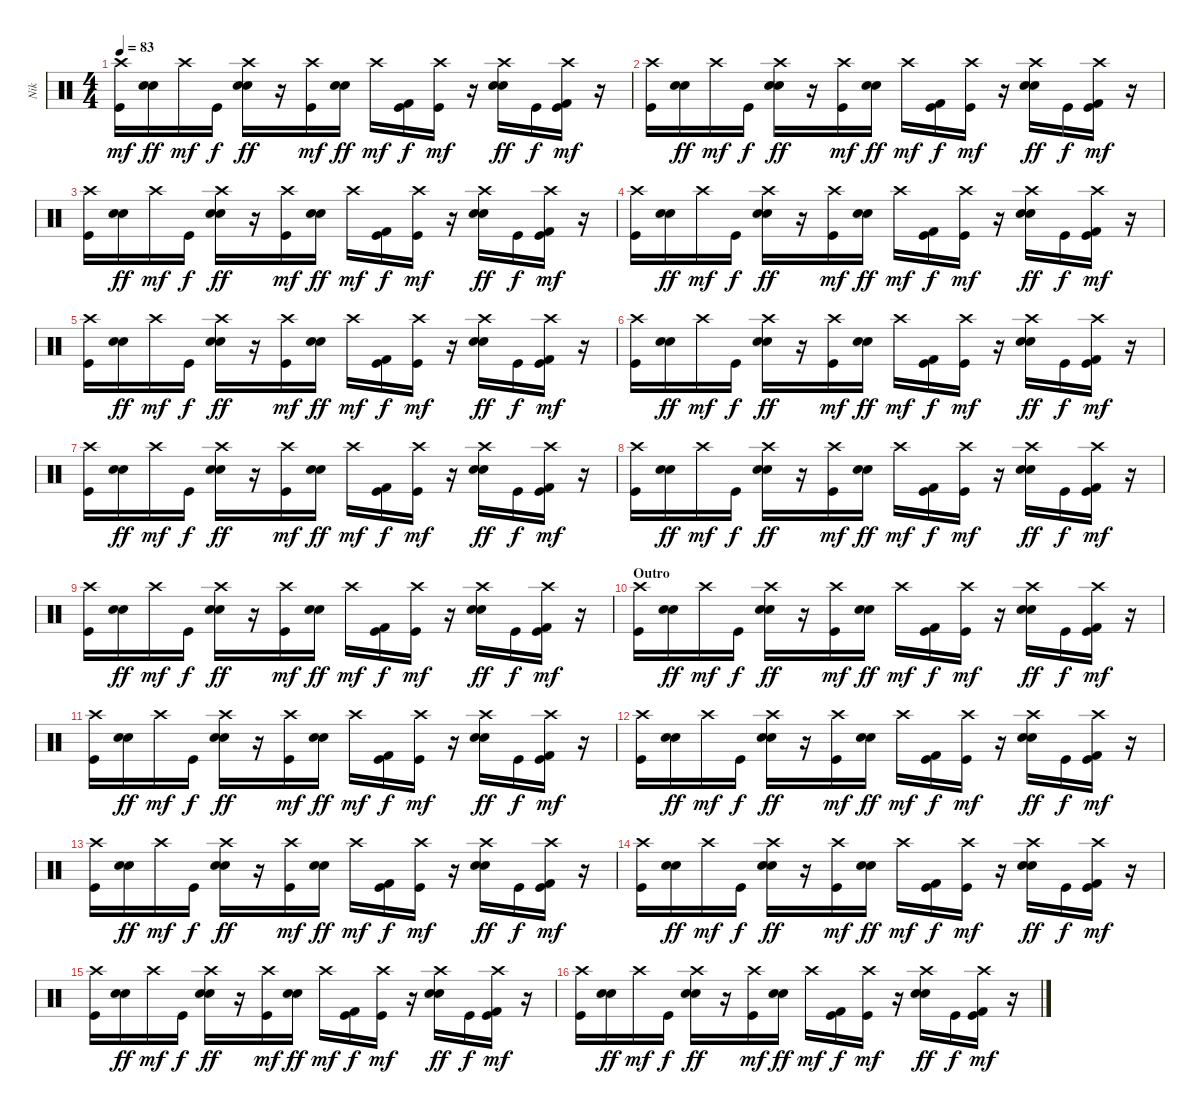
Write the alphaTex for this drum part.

\track ("Nik" "Nik") {instrument percussion}
\staff {score}
\articulation defaults
\ts (4 4)
\tempo 83
\clef neutral
\ks c
("Crash high (hit)" "Kick (hit)").16{dy mf} ("Electric Snare (hit)" "Electric Snare (hit)").16{dy ff} "Crash high (hit)".16{dy mf} "Kick (hit)".16{dy f} ("Crash high (hit)" "Electric Snare (hit)" "Electric Snare (hit)").16{dy ff} r.16 ("Crash high (hit)" "Kick (hit)").16{dy mf} ("Electric Snare (hit)" "Electric Snare (hit)").16{dy ff} "Crash high (hit)".16{dy mf} ("Kick (hit) 2" "Kick (hit)").16{dy f} ("Crash high (hit)" "Kick (hit)").16{dy mf} r.16 ("Crash high (hit)" "Electric Snare (hit)" "Electric Snare (hit)").16{dy ff} "Kick (hit)".16{dy f} ("Crash high (hit)" "Kick (hit) 2" "Kick (hit)").16{dy mf} r.16 |
("Crash high (hit)" "Kick (hit)").16 ("Electric Snare (hit)" "Electric Snare (hit)").16{dy ff} "Crash high (hit)".16{dy mf} "Kick (hit)".16{dy f} ("Crash high (hit)" "Electric Snare (hit)" "Electric Snare (hit)").16{dy ff} r.16 ("Crash high (hit)" "Kick (hit)").16{dy mf} ("Electric Snare (hit)" "Electric Snare (hit)").16{dy ff} "Crash high (hit)".16{dy mf} ("Kick (hit) 2" "Kick (hit)").16{dy f} ("Crash high (hit)" "Kick (hit)").16{dy mf} r.16 ("Crash high (hit)" "Electric Snare (hit)" "Electric Snare (hit)").16{dy ff} "Kick (hit)".16{dy f} ("Crash high (hit)" "Kick (hit) 2" "Kick (hit)").16{dy mf} r.16 |
("Crash high (hit)" "Kick (hit)").16 ("Electric Snare (hit)" "Electric Snare (hit)").16{dy ff} "Crash high (hit)".16{dy mf} "Kick (hit)".16{dy f} ("Crash high (hit)" "Electric Snare (hit)" "Electric Snare (hit)").16{dy ff} r.16 ("Crash high (hit)" "Kick (hit)").16{dy mf} ("Electric Snare (hit)" "Electric Snare (hit)").16{dy ff} "Crash high (hit)".16{dy mf} ("Kick (hit) 2" "Kick (hit)").16{dy f} ("Crash high (hit)" "Kick (hit)").16{dy mf} r.16 ("Crash high (hit)" "Electric Snare (hit)" "Electric Snare (hit)").16{dy ff} "Kick (hit)".16{dy f} ("Crash high (hit)" "Kick (hit) 2" "Kick (hit)").16{dy mf} r.16 |
("Crash high (hit)" "Kick (hit)").16 ("Electric Snare (hit)" "Electric Snare (hit)").16{dy ff} "Crash high (hit)".16{dy mf} "Kick (hit)".16{dy f} ("Crash high (hit)" "Electric Snare (hit)" "Electric Snare (hit)").16{dy ff} r.16 ("Crash high (hit)" "Kick (hit)").16{dy mf} ("Electric Snare (hit)" "Electric Snare (hit)").16{dy ff} "Crash high (hit)".16{dy mf} ("Kick (hit) 2" "Kick (hit)").16{dy f} ("Crash high (hit)" "Kick (hit)").16{dy mf} r.16 ("Crash high (hit)" "Electric Snare (hit)" "Electric Snare (hit)").16{dy ff} "Kick (hit)".16{dy f} ("Crash high (hit)" "Kick (hit) 2" "Kick (hit)").16{dy mf} r.16 |
("Crash high (hit)" "Kick (hit)").16 ("Electric Snare (hit)" "Electric Snare (hit)").16{dy ff} "Crash high (hit)".16{dy mf} "Kick (hit)".16{dy f} ("Crash high (hit)" "Electric Snare (hit)" "Electric Snare (hit)").16{dy ff} r.16 ("Crash high (hit)" "Kick (hit)").16{dy mf} ("Electric Snare (hit)" "Electric Snare (hit)").16{dy ff} "Crash high (hit)".16{dy mf} ("Kick (hit) 2" "Kick (hit)").16{dy f} ("Crash high (hit)" "Kick (hit)").16{dy mf} r.16 ("Crash high (hit)" "Electric Snare (hit)" "Electric Snare (hit)").16{dy ff} "Kick (hit)".16{dy f} ("Crash high (hit)" "Kick (hit) 2" "Kick (hit)").16{dy mf} r.16 |
("Crash high (hit)" "Kick (hit)").16 ("Electric Snare (hit)" "Electric Snare (hit)").16{dy ff} "Crash high (hit)".16{dy mf} "Kick (hit)".16{dy f} ("Crash high (hit)" "Electric Snare (hit)" "Electric Snare (hit)").16{dy ff} r.16 ("Crash high (hit)" "Kick (hit)").16{dy mf} ("Electric Snare (hit)" "Electric Snare (hit)").16{dy ff} "Crash high (hit)".16{dy mf} ("Kick (hit) 2" "Kick (hit)").16{dy f} ("Crash high (hit)" "Kick (hit)").16{dy mf} r.16 ("Crash high (hit)" "Electric Snare (hit)" "Electric Snare (hit)").16{dy ff} "Kick (hit)".16{dy f} ("Crash high (hit)" "Kick (hit) 2" "Kick (hit)").16{dy mf} r.16 |
("Crash high (hit)" "Kick (hit)").16 ("Electric Snare (hit)" "Electric Snare (hit)").16{dy ff} "Crash high (hit)".16{dy mf} "Kick (hit)".16{dy f} ("Crash high (hit)" "Electric Snare (hit)" "Electric Snare (hit)").16{dy ff} r.16 ("Crash high (hit)" "Kick (hit)").16{dy mf} ("Electric Snare (hit)" "Electric Snare (hit)").16{dy ff} "Crash high (hit)".16{dy mf} ("Kick (hit) 2" "Kick (hit)").16{dy f} ("Crash high (hit)" "Kick (hit)").16{dy mf} r.16 ("Crash high (hit)" "Electric Snare (hit)" "Electric Snare (hit)").16{dy ff} "Kick (hit)".16{dy f} ("Crash high (hit)" "Kick (hit) 2" "Kick (hit)").16{dy mf} r.16 |
("Crash high (hit)" "Kick (hit)").16 ("Electric Snare (hit)" "Electric Snare (hit)").16{dy ff} "Crash high (hit)".16{dy mf} "Kick (hit)".16{dy f} ("Crash high (hit)" "Electric Snare (hit)" "Electric Snare (hit)").16{dy ff} r.16 ("Crash high (hit)" "Kick (hit)").16{dy mf} ("Electric Snare (hit)" "Electric Snare (hit)").16{dy ff} "Crash high (hit)".16{dy mf} ("Kick (hit) 2" "Kick (hit)").16{dy f} ("Crash high (hit)" "Kick (hit)").16{dy mf} r.16 ("Crash high (hit)" "Electric Snare (hit)" "Electric Snare (hit)").16{dy ff} "Kick (hit)".16{dy f} ("Crash high (hit)" "Kick (hit) 2" "Kick (hit)").16{dy mf} r.16 |
("Crash high (hit)" "Kick (hit)").16 ("Electric Snare (hit)" "Electric Snare (hit)").16{dy ff} "Crash high (hit)".16{dy mf} "Kick (hit)".16{dy f} ("Crash high (hit)" "Electric Snare (hit)" "Electric Snare (hit)").16{dy ff} r.16 ("Crash high (hit)" "Kick (hit)").16{dy mf} ("Electric Snare (hit)" "Electric Snare (hit)").16{dy ff} "Crash high (hit)".16{dy mf} ("Kick (hit) 2" "Kick (hit)").16{dy f} ("Crash high (hit)" "Kick (hit)").16{dy mf} r.16 ("Crash high (hit)" "Electric Snare (hit)" "Electric Snare (hit)").16{dy ff} "Kick (hit)".16{dy f} ("Crash high (hit)" "Kick (hit) 2" "Kick (hit)").16{dy mf} r.16 |
\section ("" "Outro")
("Crash high (hit)" "Kick (hit)").16 ("Electric Snare (hit)" "Electric Snare (hit)").16{dy ff} "Crash high (hit)".16{dy mf} "Kick (hit)".16{dy f} ("Crash high (hit)" "Electric Snare (hit)" "Electric Snare (hit)").16{dy ff} r.16 ("Crash high (hit)" "Kick (hit)").16{dy mf} ("Electric Snare (hit)" "Electric Snare (hit)").16{dy ff} "Crash high (hit)".16{dy mf} ("Kick (hit) 2" "Kick (hit)").16{dy f} ("Crash high (hit)" "Kick (hit)").16{dy mf} r.16 ("Crash high (hit)" "Electric Snare (hit)" "Electric Snare (hit)").16{dy ff} "Kick (hit)".16{dy f} ("Crash high (hit)" "Kick (hit) 2" "Kick (hit)").16{dy mf} r.16 |
("Crash high (hit)" "Kick (hit)").16 ("Electric Snare (hit)" "Electric Snare (hit)").16{dy ff} "Crash high (hit)".16{dy mf} "Kick (hit)".16{dy f} ("Crash high (hit)" "Electric Snare (hit)" "Electric Snare (hit)").16{dy ff} r.16 ("Crash high (hit)" "Kick (hit)").16{dy mf} ("Electric Snare (hit)" "Electric Snare (hit)").16{dy ff} "Crash high (hit)".16{dy mf} ("Kick (hit) 2" "Kick (hit)").16{dy f} ("Crash high (hit)" "Kick (hit)").16{dy mf} r.16 ("Crash high (hit)" "Electric Snare (hit)" "Electric Snare (hit)").16{dy ff} "Kick (hit)".16{dy f} ("Crash high (hit)" "Kick (hit) 2" "Kick (hit)").16{dy mf} r.16 |
("Crash high (hit)" "Kick (hit)").16 ("Electric Snare (hit)" "Electric Snare (hit)").16{dy ff} "Crash high (hit)".16{dy mf} "Kick (hit)".16{dy f} ("Crash high (hit)" "Electric Snare (hit)" "Electric Snare (hit)").16{dy ff} r.16 ("Crash high (hit)" "Kick (hit)").16{dy mf} ("Electric Snare (hit)" "Electric Snare (hit)").16{dy ff} "Crash high (hit)".16{dy mf} ("Kick (hit) 2" "Kick (hit)").16{dy f} ("Crash high (hit)" "Kick (hit)").16{dy mf} r.16 ("Crash high (hit)" "Electric Snare (hit)" "Electric Snare (hit)").16{dy ff} "Kick (hit)".16{dy f} ("Crash high (hit)" "Kick (hit) 2" "Kick (hit)").16{dy mf} r.16 |
("Crash high (hit)" "Kick (hit)").16 ("Electric Snare (hit)" "Electric Snare (hit)").16{dy ff} "Crash high (hit)".16{dy mf} "Kick (hit)".16{dy f} ("Crash high (hit)" "Electric Snare (hit)" "Electric Snare (hit)").16{dy ff} r.16 ("Crash high (hit)" "Kick (hit)").16{dy mf} ("Electric Snare (hit)" "Electric Snare (hit)").16{dy ff} "Crash high (hit)".16{dy mf} ("Kick (hit) 2" "Kick (hit)").16{dy f} ("Crash high (hit)" "Kick (hit)").16{dy mf} r.16 ("Crash high (hit)" "Electric Snare (hit)" "Electric Snare (hit)").16{dy ff} "Kick (hit)".16{dy f} ("Crash high (hit)" "Kick (hit) 2" "Kick (hit)").16{dy mf} r.16 |
("Crash high (hit)" "Kick (hit)").16 ("Electric Snare (hit)" "Electric Snare (hit)").16{dy ff} "Crash high (hit)".16{dy mf} "Kick (hit)".16{dy f} ("Crash high (hit)" "Electric Snare (hit)" "Electric Snare (hit)").16{dy ff} r.16 ("Crash high (hit)" "Kick (hit)").16{dy mf} ("Electric Snare (hit)" "Electric Snare (hit)").16{dy ff} "Crash high (hit)".16{dy mf} ("Kick (hit) 2" "Kick (hit)").16{dy f} ("Crash high (hit)" "Kick (hit)").16{dy mf} r.16 ("Crash high (hit)" "Electric Snare (hit)" "Electric Snare (hit)").16{dy ff} "Kick (hit)".16{dy f} ("Crash high (hit)" "Kick (hit) 2" "Kick (hit)").16{dy mf} r.16 |
("Crash high (hit)" "Kick (hit)").16 ("Electric Snare (hit)" "Electric Snare (hit)").16{dy ff} "Crash high (hit)".16{dy mf} "Kick (hit)".16{dy f} ("Crash high (hit)" "Electric Snare (hit)" "Electric Snare (hit)").16{dy ff} r.16 ("Crash high (hit)" "Kick (hit)").16{dy mf} ("Electric Snare (hit)" "Electric Snare (hit)").16{dy ff} "Crash high (hit)".16{dy mf} ("Kick (hit) 2" "Kick (hit)").16{dy f} ("Crash high (hit)" "Kick (hit)").16{dy mf} r.16 ("Crash high (hit)" "Electric Snare (hit)" "Electric Snare (hit)").16{dy ff} "Kick (hit)".16{dy f} ("Crash high (hit)" "Kick (hit) 2" "Kick (hit)").16{dy mf} r.16 |
("Crash high (hit)" "Kick (hit)").16 ("Electric Snare (hit)" "Electric Snare (hit)").16{dy ff} "Crash high (hit)".16{dy mf} "Kick (hit)".16{dy f} ("Crash high (hit)" "Electric Snare (hit)" "Electric Snare (hit)").16{dy ff} r.16 ("Crash high (hit)" "Kick (hit)").16{dy mf} ("Electric Snare (hit)" "Electric Snare (hit)").16{dy ff} "Crash high (hit)".16{dy mf} ("Kick (hit) 2" "Kick (hit)").16{dy f} ("Crash high (hit)" "Kick (hit)").16{dy mf} r.16 ("Crash high (hit)" "Electric Snare (hit)" "Electric Snare (hit)").16{dy ff} "Kick (hit)".16{dy f} ("Crash high (hit)" "Kick (hit) 2" "Kick (hit)").16{dy mf} r.16
